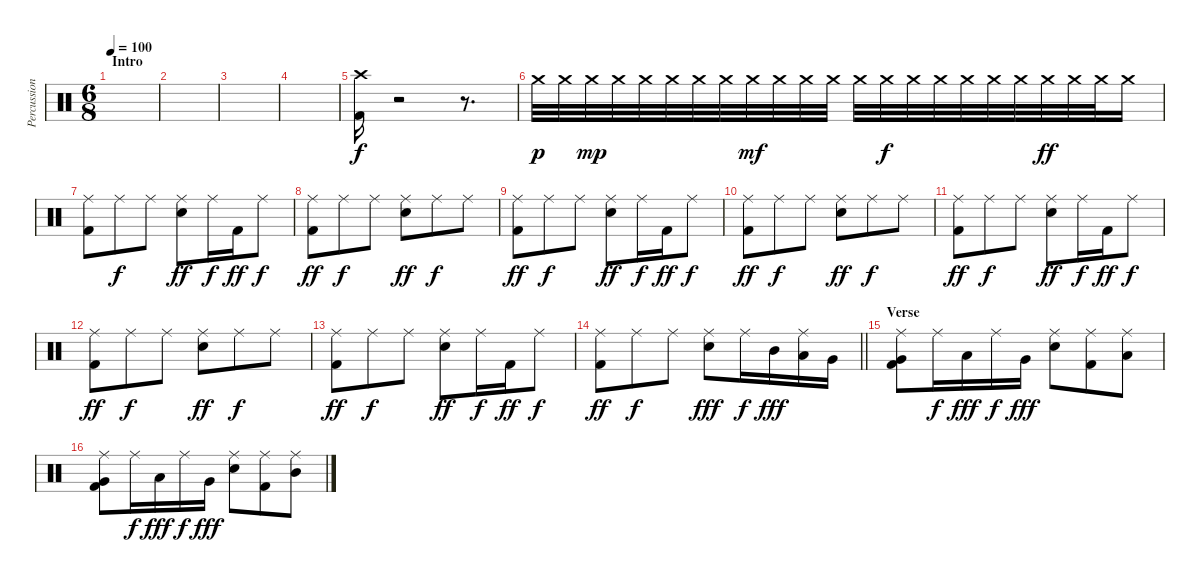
\track ("Percussion" "Percussion") {instrument percussion}
\staff {score}
\articulation defaults
\ts (6 8)
\section ("" "Intro")
\tempo 100
\clef neutral
\ks c
|
|
|
|
("Kick (hit) 2" "Crash high (hit)").16 r.2 r.8{d} |
"Crash medium (hit)".32{dy p} "Crash medium (hit)".32 "Crash medium (hit)".32{dy mp} "Crash medium (hit)".32 "Crash medium (hit)".32 "Crash medium (hit)".32 "Crash medium (hit)".32 "Crash medium (hit)".32 "Crash medium (hit)".32{dy mf} "Crash medium (hit)".32 "Crash medium (hit)".32 "Crash medium (hit)".32 "Crash medium (hit)".32 "Crash medium (hit)".32{dy f} "Crash medium (hit)".32 "Crash medium (hit)".32 "Crash medium (hit)".32 "Crash medium (hit)".32 "Crash medium (hit)".32 "Crash medium (hit)".32{dy ff} "Crash medium (hit)".32 "Crash medium (hit)".32 "Crash medium (hit)".16 |
("Ride (middle)" "Kick (hit) 2").8 "Ride (middle)".8{dy f} "Ride (middle)".8 ("Ride (middle)" "Electric Snare (hit)").8{dy ff} "Ride (middle)".16{dy f} "Kick (hit) 2".16{dy ff} "Ride (middle)".8{dy f} |
("Ride (middle)" "Kick (hit) 2").8{dy ff} "Ride (middle)".8{dy f} "Ride (middle)".8 ("Ride (middle)" "Electric Snare (hit)").8{dy ff} "Ride (middle)".8{dy f} "Ride (middle)".8 |
("Kick (hit) 2" "Ride (middle)").8{dy ff} "Ride (middle)".8{dy f} "Ride (middle)".8 ("Electric Snare (hit)" "Ride (middle)").8{dy ff} "Ride (middle)".16{dy f} "Kick (hit) 2".16{dy ff} "Ride (middle)".8{dy f} |
("Kick (hit) 2" "Ride (middle)").8{dy ff} "Ride (middle)".8{dy f} "Ride (middle)".8 ("Electric Snare (hit)" "Ride (middle)").8{dy ff} "Ride (middle)".8{dy f} "Ride (middle)".8 |
("Kick (hit) 2" "Ride (middle)").8{dy ff} "Ride (middle)".8{dy f} "Ride (middle)".8 ("Electric Snare (hit)" "Ride (middle)").8{dy ff} "Ride (middle)".16{dy f} "Kick (hit) 2".16{dy ff} "Ride (middle)".8{dy f} |
("Kick (hit) 2" "Ride (middle)").8{dy ff} "Ride (middle)".8{dy f} "Ride (middle)".8 ("Electric Snare (hit)" "Ride (middle)").8{dy ff} "Ride (middle)".8{dy f} "Ride (middle)".8 |
("Kick (hit) 2" "Ride (middle)").8{dy ff} "Ride (middle)".8{dy f} "Ride (middle)".8 ("Electric Snare (hit)" "Ride (middle)").8{dy ff} "Ride (middle)".16{dy f} "Kick (hit) 2".16{dy ff} "Ride (middle)".8{dy f} |
\barLineRight lightlight
("Kick (hit) 2" "Ride (middle)").8{dy ff} "Ride (middle)".8{dy f} "Ride (middle)".8 ("Electric Snare (hit)" "Ride (middle)").8{dy fff} "Ride (middle)".16{dy f} "Mid Tom (hit)".16{dy fff} ("Ride (middle)" "Low Tom (hit)").16 "Very Low Tom (hit)".16 |
\section ("" "Verse")
("Ride (middle)" "Kick (hit) 2" "Very Low Tom (hit)").8 "Ride (middle)".16{dy f} "Low Tom (hit)".16{dy fff} "Ride (middle)".16{dy f} "Very Low Tom (hit)".16{dy fff} ("Ride (middle)" "Electric Snare (hit)").8 ("Ride (middle)" "Kick (hit) 2").8 ("Ride (middle)" "Low Tom (hit)").8 |
("Ride (middle)" "Kick (hit) 2" "Very Low Tom (hit)").8 "Ride (middle)".16{dy f} "Low Tom (hit)".16{dy fff} "Ride (middle)".16{dy f} "Very Low Tom (hit)".16{dy fff} ("Ride (middle)" "Electric Snare (hit)").8 ("Ride (middle)" "Kick (hit) 2").8 ("Ride (middle)" "Mid Tom (hit)").8
